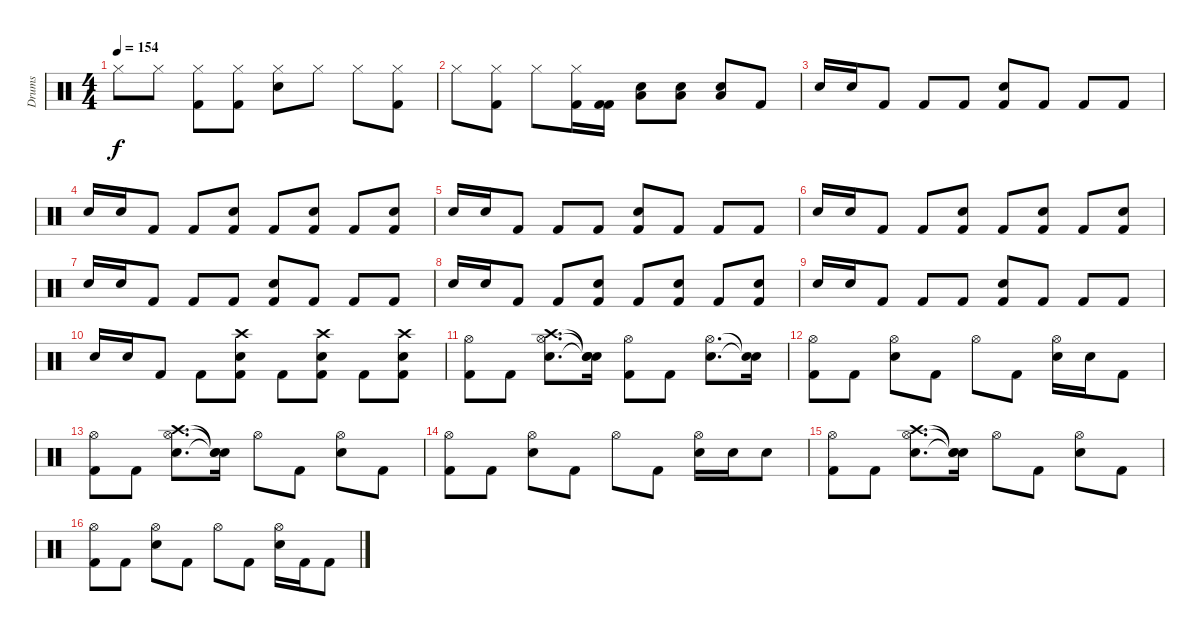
\track ("Drums" "Drums") {instrument percussion}
\staff {score}
\articulation defaults
\ts (4 4)
\tempo 154
\clef neutral
\ks c "Hi-Hat (closed)".8{dy f} "Hi-Hat (closed)".8
("Kick (hit) 2" "Hi-Hat (closed)").8 ("Kick (hit) 2" "Hi-Hat (closed)").8 ("Snare (hit) 2" "Hi-Hat (closed)").8 "Hi-Hat (closed)".8 "Hi-Hat (closed)".8 ("Kick (hit) 2" "Hi-Hat (closed)").8 |
"Hi-Hat (closed)".8 ("Kick (hit) 2" "Hi-Hat (closed)").8 "Hi-Hat (closed)".8 ("Kick (hit) 2" "Hi-Hat (closed)").16 ("Kick (hit) 2" "Kick (hit) 2").16 ("Snare (hit) 2" "Low Floor Tom (hit)").8 ("Snare (hit) 2" "Low Floor Tom (hit)").8 ("Snare (hit) 2" "Low Floor Tom (hit)").8 "Kick (hit) 2".8 |
"Snare (hit) 2".16 "Snare (hit) 2".16 "Kick (hit) 2".8 "Kick (hit) 2".8 "Kick (hit) 2".8 ("Kick (hit) 2" "Snare (hit) 2").8 "Kick (hit) 2".8 "Kick (hit) 2".8 "Kick (hit) 2".8 |
"Snare (hit) 2".16 "Snare (hit) 2".16 "Kick (hit) 2".8 "Kick (hit) 2".8 ("Kick (hit) 2" "Snare (hit) 2").8 "Kick (hit) 2".8 ("Kick (hit) 2" "Snare (hit) 2").8 "Kick (hit) 2".8 ("Kick (hit) 2" "Snare (hit) 2").8 |
"Snare (hit) 2".16 "Snare (hit) 2".16 "Kick (hit) 2".8 "Kick (hit) 2".8 "Kick (hit) 2".8 ("Kick (hit) 2" "Snare (hit) 2").8 "Kick (hit) 2".8 "Kick (hit) 2".8 "Kick (hit) 2".8 |
"Snare (hit) 2".16 "Snare (hit) 2".16 "Kick (hit) 2".8 "Kick (hit) 2".8 ("Kick (hit) 2" "Snare (hit) 2").8 "Kick (hit) 2".8 ("Kick (hit) 2" "Snare (hit) 2").8 "Kick (hit) 2".8 ("Kick (hit) 2" "Snare (hit) 2").8 |
"Snare (hit) 2".16 "Snare (hit) 2".16 "Kick (hit) 2".8 "Kick (hit) 2".8 "Kick (hit) 2".8 ("Kick (hit) 2" "Snare (hit) 2").8 "Kick (hit) 2".8 "Kick (hit) 2".8 "Kick (hit) 2".8 |
"Snare (hit) 2".16 "Snare (hit) 2".16 "Kick (hit) 2".8 "Kick (hit) 2".8 ("Kick (hit) 2" "Snare (hit) 2").8 "Kick (hit) 2".8 ("Kick (hit) 2" "Snare (hit) 2").8 "Kick (hit) 2".8 ("Kick (hit) 2" "Snare (hit) 2").8 |
"Snare (hit) 2".16 "Snare (hit) 2".16 "Kick (hit) 2".8 "Kick (hit) 2".8 "Kick (hit) 2".8 ("Kick (hit) 2" "Snare (hit) 2").8 "Kick (hit) 2".8 "Kick (hit) 2".8 "Kick (hit) 2".8 |
"Snare (hit) 2".16 "Snare (hit) 2".16 "Kick (hit) 2".8 "Kick (hit) 2".8 ("Kick (hit) 2" "Snare (hit) 2" "Crash high (hit)").8 "Kick (hit) 2".8 ("Kick (hit) 2" "Snare (hit) 2" "Crash high (hit)").8 "Kick (hit) 2".8 ("Kick (hit) 2" "Snare (hit) 2" "Crash high (hit)").8 |
("Kick (hit) 2" "Hi-Hat (open)").8 "Kick (hit) 2".8 ("Snare (hit) 2" "Hi-Hat (open)" "Crash high (hit)").8{d} ("Snare (hit)"{t} "Snare (hit)"{t} "Snare (hit)"{t}).16 ("Kick (hit) 2" "Hi-Hat (open)").8 "Kick (hit) 2".8 ("Snare (hit) 2" "Hi-Hat (open)").8{d} ("Snare (hit)"{t} "Snare (hit)"{t}).16 |
("Kick (hit) 2" "Hi-Hat (open)").8 "Kick (hit) 2".8 ("Snare (hit) 2" "Hi-Hat (open)").8 "Kick (hit) 2".8 "Hi-Hat (open)".8 "Kick (hit) 2".8 ("Snare (hit) 2" "Hi-Hat (open)").16 "Snare (hit) 2".16 "Kick (hit) 2".8 |
("Kick (hit) 2" "Hi-Hat (open)").8 "Kick (hit) 2".8 ("Snare (hit) 2" "Hi-Hat (open)" "Crash high (hit)").8{d} ("Snare (hit)"{t} "Snare (hit)"{t} "Snare (hit)"{t}).16 "Hi-Hat (open)".8 "Kick (hit) 2".8 ("Snare (hit) 2" "Hi-Hat (open)").8 "Kick (hit) 2".8 |
("Kick (hit) 2" "Hi-Hat (open)").8 "Kick (hit) 2".8 ("Snare (hit) 2" "Hi-Hat (open)").8 "Kick (hit) 2".8 "Hi-Hat (open)".8 "Kick (hit) 2".8 ("Snare (hit) 2" "Hi-Hat (open)").16 "Snare (hit) 2".16 "Snare (hit) 2".8 |
("Kick (hit) 2" "Hi-Hat (open)").8 "Kick (hit) 2".8 ("Snare (hit) 2" "Hi-Hat (open)" "Crash high (hit)").8{d} ("Snare (hit)"{t} "Snare (hit)"{t} "Snare (hit)"{t}).16 "Hi-Hat (open)".8 "Kick (hit) 2".8 ("Snare (hit) 2" "Hi-Hat (open)").8 "Kick (hit) 2".8 |
("Kick (hit) 2" "Hi-Hat (open)").8 "Kick (hit) 2".8 ("Snare (hit) 2" "Hi-Hat (open)").8 "Kick (hit) 2".8 "Hi-Hat (open)".8 "Kick (hit) 2".8 ("Snare (hit) 2" "Hi-Hat (open)").16 "Kick (hit) 2".16 "Kick (hit) 2".8
